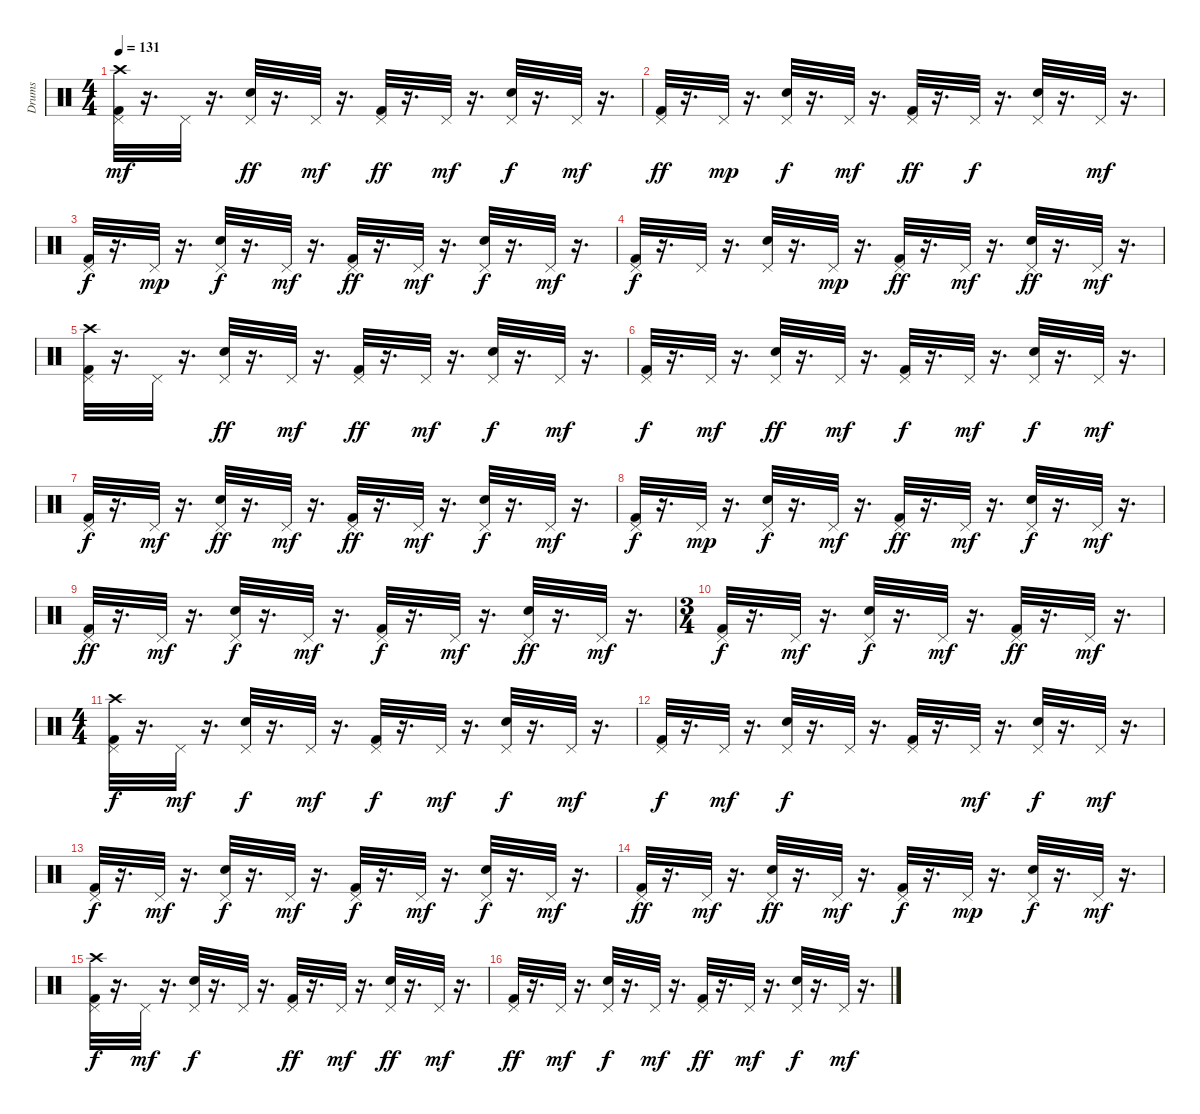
\track ("Drums" "Drums") {instrument percussion}
\staff {score}
\articulation defaults
\ts (4 4)
\tempo 131
\clef neutral
\ks c
("Crash high (hit)" "Pedal Hi-Hat (hit)" "Kick (hit) 2").32{dy mf} r.16{d} "Pedal Hi-Hat (hit)".32 r.16{d} ("Pedal Hi-Hat (hit)" "Snare (hit) 2").32{dy ff} r.16{d} "Pedal Hi-Hat (hit)".32{dy mf} r.16{d} ("Pedal Hi-Hat (hit)" "Kick (hit) 2").32{dy ff} r.16{d} "Pedal Hi-Hat (hit)".32{dy mf} r.16{d} ("Pedal Hi-Hat (hit)" "Snare (hit) 2").32{dy f} r.16{d} "Pedal Hi-Hat (hit)".32{dy mf} r.16{d} |
("Pedal Hi-Hat (hit)" "Kick (hit) 2").32{dy ff} r.16{d} "Pedal Hi-Hat (hit)".32{dy mp} r.16{d} ("Pedal Hi-Hat (hit)" "Snare (hit) 2").32{dy f} r.16{d} "Pedal Hi-Hat (hit)".32{dy mf} r.16{d} ("Pedal Hi-Hat (hit)" "Kick (hit) 2").32{dy ff} r.16{d} "Pedal Hi-Hat (hit)".32{dy f} r.16{d} ("Pedal Hi-Hat (hit)" "Snare (hit) 2").32 r.16{d} "Pedal Hi-Hat (hit)".32{dy mf} r.16{d} |
("Pedal Hi-Hat (hit)" "Kick (hit) 2").32{dy f} r.16{d} "Pedal Hi-Hat (hit)".32{dy mp} r.16{d} ("Snare (hit) 2" "Pedal Hi-Hat (hit)").32{dy f} r.16{d} "Pedal Hi-Hat (hit)".32{dy mf} r.16{d} ("Pedal Hi-Hat (hit)" "Kick (hit) 2").32{dy ff} r.16{d} "Pedal Hi-Hat (hit)".32{dy mf} r.16{d} ("Pedal Hi-Hat (hit)" "Snare (hit) 2").32{dy f} r.16{d} "Pedal Hi-Hat (hit)".32{dy mf} r.16{d} |
("Pedal Hi-Hat (hit)" "Kick (hit) 2").32{dy f} r.16{d} "Pedal Hi-Hat (hit)".32 r.16{d} ("Snare (hit) 2" "Pedal Hi-Hat (hit)").32 r.16{d} "Pedal Hi-Hat (hit)".32{dy mp} r.16{d} ("Kick (hit) 2" "Pedal Hi-Hat (hit)").32{dy ff} r.16{d} "Pedal Hi-Hat (hit)".32{dy mf} r.16{d} ("Snare (hit) 2" "Pedal Hi-Hat (hit)").32{dy ff} r.16{d} "Pedal Hi-Hat (hit)".32{dy mf} r.16{d} |
("Kick (hit) 2" "Pedal Hi-Hat (hit)" "Crash high (hit)").32 r.16{d} "Pedal Hi-Hat (hit)".32 r.16{d} ("Pedal Hi-Hat (hit)" "Snare (hit) 2").32{dy ff} r.16{d} "Pedal Hi-Hat (hit)".32{dy mf} r.16{d} ("Pedal Hi-Hat (hit)" "Kick (hit) 2").32{dy ff} r.16{d} "Pedal Hi-Hat (hit)".32{dy mf} r.16{d} ("Snare (hit) 2" "Pedal Hi-Hat (hit)").32{dy f} r.16{d} "Pedal Hi-Hat (hit)".32{dy mf} r.16{d} |
("Kick (hit) 2" "Pedal Hi-Hat (hit)").32{dy f} r.16{d} "Pedal Hi-Hat (hit)".32{dy mf} r.16{d} ("Snare (hit) 2" "Pedal Hi-Hat (hit)").32{dy ff} r.16{d} "Pedal Hi-Hat (hit)".32{dy mf} r.16{d} ("Kick (hit) 2" "Pedal Hi-Hat (hit)").32{dy f} r.16{d} "Pedal Hi-Hat (hit)".32{dy mf} r.16{d} ("Snare (hit) 2" "Pedal Hi-Hat (hit)").32{dy f} r.16{d} "Pedal Hi-Hat (hit)".32{dy mf} r.16{d} |
("Kick (hit) 2" "Pedal Hi-Hat (hit)").32{dy f} r.16{d} "Pedal Hi-Hat (hit)".32{dy mf} r.16{d} ("Snare (hit) 2" "Pedal Hi-Hat (hit)").32{dy ff} r.16{d} "Pedal Hi-Hat (hit)".32{dy mf} r.16{d} ("Kick (hit) 2" "Pedal Hi-Hat (hit)").32{dy ff} r.16{d} "Pedal Hi-Hat (hit)".32{dy mf} r.16{d} ("Snare (hit) 2" "Pedal Hi-Hat (hit)").32{dy f} r.16{d} "Pedal Hi-Hat (hit)".32{dy mf} r.16{d} |
("Pedal Hi-Hat (hit)" "Kick (hit) 2").32{dy f} r.16{d} "Pedal Hi-Hat (hit)".32{dy mp} r.16{d} ("Pedal Hi-Hat (hit)" "Snare (hit) 2").32{dy f} r.16{d} "Pedal Hi-Hat (hit)".32{dy mf} r.16{d} ("Pedal Hi-Hat (hit)" "Kick (hit) 2").32{dy ff} r.16{d} "Pedal Hi-Hat (hit)".32{dy mf} r.16{d} ("Pedal Hi-Hat (hit)" "Snare (hit) 2").32{dy f} r.16{d} "Pedal Hi-Hat (hit)".32{dy mf} r.16{d} |
("Pedal Hi-Hat (hit)" "Kick (hit) 2").32{dy ff} r.16{d} "Pedal Hi-Hat (hit)".32{dy mf} r.16{d} ("Snare (hit) 2" "Pedal Hi-Hat (hit)").32{dy f} r.16{d} "Pedal Hi-Hat (hit)".32{dy mf} r.16{d} ("Pedal Hi-Hat (hit)" "Kick (hit) 2").32{dy f} r.16{d} "Pedal Hi-Hat (hit)".32{dy mf} r.16{d} ("Snare (hit) 2" "Pedal Hi-Hat (hit)").32{dy ff} r.16{d} "Pedal Hi-Hat (hit)".32{dy mf} r.16{d} |
\ts (3 4)
("Pedal Hi-Hat (hit)" "Kick (hit) 2").32{dy f} r.16{d} "Pedal Hi-Hat (hit)".32{dy mf} r.16{d} ("Snare (hit) 2" "Pedal Hi-Hat (hit)").32{dy f} r.16{d} "Pedal Hi-Hat (hit)".32{dy mf} r.16{d} ("Pedal Hi-Hat (hit)" "Kick (hit) 2").32{dy ff} r.16{d} "Pedal Hi-Hat (hit)".32{dy mf} r.16{d} |
\ts (4 4)
("Pedal Hi-Hat (hit)" "Kick (hit) 2" "Crash high (hit)").32{dy f} r.16{d} "Pedal Hi-Hat (hit)".32{dy mf} r.16{d} ("Snare (hit) 2" "Pedal Hi-Hat (hit)").32{dy f} r.16{d} "Pedal Hi-Hat (hit)".32{dy mf} r.16{d} ("Kick (hit) 2" "Pedal Hi-Hat (hit)").32{dy f} r.16{d} "Pedal Hi-Hat (hit)".32{dy mf} r.16{d} ("Snare (hit) 2" "Pedal Hi-Hat (hit)").32{dy f} r.16{d} "Pedal Hi-Hat (hit)".32{dy mf} r.16{d} |
("Kick (hit) 2" "Pedal Hi-Hat (hit)").32{dy f} r.16{d} "Pedal Hi-Hat (hit)".32{dy mf} r.16{d} ("Snare (hit) 2" "Pedal Hi-Hat (hit)").32{dy f} r.16{d} "Pedal Hi-Hat (hit)".32 r.16{d} ("Pedal Hi-Hat (hit)" "Kick (hit) 2").32 r.16{d} "Pedal Hi-Hat (hit)".32{dy mf} r.16{d} ("Pedal Hi-Hat (hit)" "Snare (hit) 2").32{dy f} r.16{d} "Pedal Hi-Hat (hit)".32{dy mf} r.16{d} |
("Pedal Hi-Hat (hit)" "Kick (hit) 2").32{dy f} r.16{d} "Pedal Hi-Hat (hit)".32{dy mf} r.16{d} ("Snare (hit) 2" "Pedal Hi-Hat (hit)").32{dy f} r.16{d} "Pedal Hi-Hat (hit)".32{dy mf} r.16{d} ("Pedal Hi-Hat (hit)" "Kick (hit) 2").32{dy f} r.16{d} "Pedal Hi-Hat (hit)".32{dy mf} r.16{d} ("Snare (hit) 2" "Pedal Hi-Hat (hit)").32{dy f} r.16{d} "Pedal Hi-Hat (hit)".32{dy mf} r.16{d} |
("Pedal Hi-Hat (hit)" "Kick (hit) 2").32{dy ff} r.16{d} "Pedal Hi-Hat (hit)".32{dy mf} r.16{d} ("Snare (hit) 2" "Pedal Hi-Hat (hit)").32{dy ff} r.16{d} "Pedal Hi-Hat (hit)".32{dy mf} r.16{d} ("Pedal Hi-Hat (hit)" "Kick (hit) 2").32{dy f} r.16{d} "Pedal Hi-Hat (hit)".32{dy mp} r.16{d} ("Snare (hit) 2" "Pedal Hi-Hat (hit)").32{dy f} r.16{d} "Pedal Hi-Hat (hit)".32{dy mf} r.16{d} |
("Kick (hit) 2" "Pedal Hi-Hat (hit)" "Crash high (hit)").32{dy f} r.16{d} "Pedal Hi-Hat (hit)".32{dy mf} r.16{d} ("Pedal Hi-Hat (hit)" "Snare (hit) 2").32{dy f} r.16{d} "Pedal Hi-Hat (hit)".32 r.16{d} ("Pedal Hi-Hat (hit)" "Kick (hit) 2").32{dy ff} r.16{d} "Pedal Hi-Hat (hit)".32{dy mf} r.16{d} ("Snare (hit) 2" "Pedal Hi-Hat (hit)").32{dy ff} r.16{d} "Pedal Hi-Hat (hit)".32{dy mf} r.16{d} |
("Pedal Hi-Hat (hit)" "Kick (hit) 2").32{dy ff} r.16{d} "Pedal Hi-Hat (hit)".32{dy mf} r.16{d} ("Pedal Hi-Hat (hit)" "Snare (hit) 2").32{dy f} r.16{d} "Pedal Hi-Hat (hit)".32{dy mf} r.16{d} ("Kick (hit) 2" "Pedal Hi-Hat (hit)").32{dy ff} r.16{d} "Pedal Hi-Hat (hit)".32{dy mf} r.16{d} ("Pedal Hi-Hat (hit)" "Snare (hit) 2").32{dy f} r.16{d} "Pedal Hi-Hat (hit)".32{dy mf} r.16{d}
